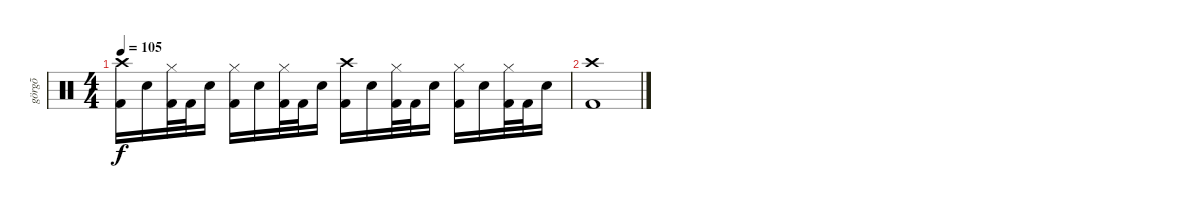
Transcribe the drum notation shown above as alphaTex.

\track ("görgõ" "görgõ") {instrument percussion}
\staff {score}
\articulation defaults
\ts (4 4)
\tempo 105
\clef neutral
\ks c
("Crash high (hit)" "Kick (hit) 2").16{dy f} "Snare (hit) 2".16 ("Hi-Hat (closed)" "Kick (hit) 2").32 "Kick (hit) 2".32 "Snare (hit) 2".16 ("Hi-Hat (closed)" "Kick (hit) 2").16 "Snare (hit) 2".16 ("Hi-Hat (closed)" "Kick (hit) 2").32 "Kick (hit) 2".32 "Snare (hit) 2".16 ("Crash high (hit)" "Kick (hit) 2").16 "Snare (hit) 2".16 ("Hi-Hat (closed)" "Kick (hit) 2").32 "Kick (hit) 2".32 "Snare (hit) 2".16 ("Hi-Hat (closed)" "Kick (hit) 2").16 "Snare (hit) 2".16 ("Hi-Hat (closed)" "Kick (hit) 2").32 "Kick (hit) 2".32 "Snare (hit) 2".16 |
("Crash high (hit)" "Kick (hit) 2").1{volume 0}
